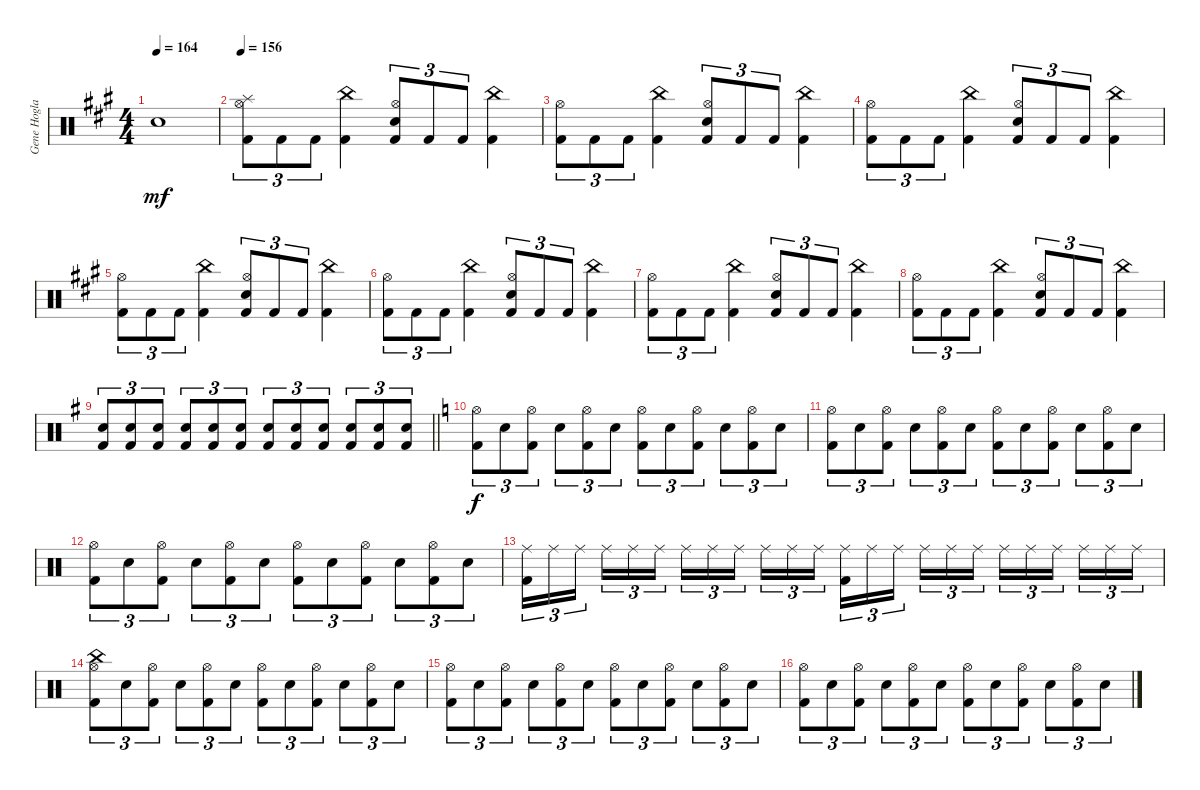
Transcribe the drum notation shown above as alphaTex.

\track ("Gene Hoglan" "Gene Hogla") {instrument percussion}
\staff {score}
\articulation defaults
\ts (4 4)
\tempo 164
\clef neutral
\ks a "Electric Snare (hit)".1{dy mf}
|
\tempo 156
("Hi-Hat (open)" "Splash (hit)" "Kick (hit) 2").8{tu (3 2)} "Kick (hit) 2".8{tu (3 2)} "Kick (hit) 2".8{tu (3 2)} ("China (hit)" "Kick (hit) 2").4 ("Hi-Hat (open)" "Electric Snare (hit)" "Kick (hit) 2").8{tu (3 2)} "Kick (hit) 2".8{tu (3 2)} "Kick (hit) 2".8{tu (3 2)} ("China (hit)" "Kick (hit) 2").4 |
("Hi-Hat (open)" "Kick (hit) 2").8{tu (3 2)} "Kick (hit) 2".8{tu (3 2)} "Kick (hit) 2".8{tu (3 2)} ("China (hit)" "Kick (hit) 2").4 ("Hi-Hat (open)" "Electric Snare (hit)" "Kick (hit) 2").8{tu (3 2)} "Kick (hit) 2".8{tu (3 2)} "Kick (hit) 2".8{tu (3 2)} ("China (hit)" "Kick (hit) 2").4 |
("Hi-Hat (open)" "Kick (hit) 2").8{tu (3 2)} "Kick (hit) 2".8{tu (3 2)} "Kick (hit) 2".8{tu (3 2)} ("China (hit)" "Kick (hit) 2").4 ("Hi-Hat (open)" "Electric Snare (hit)" "Kick (hit) 2").8{tu (3 2)} "Kick (hit) 2".8{tu (3 2)} "Kick (hit) 2".8{tu (3 2)} ("China (hit)" "Kick (hit) 2").4 |
("Hi-Hat (open)" "Kick (hit) 2").8{tu (3 2)} "Kick (hit) 2".8{tu (3 2)} "Kick (hit) 2".8{tu (3 2)} ("China (hit)" "Kick (hit) 2").4 ("Hi-Hat (open)" "Electric Snare (hit)" "Kick (hit) 2").8{tu (3 2)} "Kick (hit) 2".8{tu (3 2)} "Kick (hit) 2".8{tu (3 2)} ("China (hit)" "Kick (hit) 2").4 |
("Hi-Hat (open)" "Kick (hit) 2").8{tu (3 2)} "Kick (hit) 2".8{tu (3 2)} "Kick (hit) 2".8{tu (3 2)} ("China (hit)" "Kick (hit) 2").4 ("Hi-Hat (open)" "Electric Snare (hit)" "Kick (hit) 2").8{tu (3 2)} "Kick (hit) 2".8{tu (3 2)} "Kick (hit) 2".8{tu (3 2)} ("China (hit)" "Kick (hit) 2").4 |
("Hi-Hat (open)" "Kick (hit) 2").8{tu (3 2)} "Kick (hit) 2".8{tu (3 2)} "Kick (hit) 2".8{tu (3 2)} ("China (hit)" "Kick (hit) 2").4 ("Hi-Hat (open)" "Electric Snare (hit)" "Kick (hit) 2").8{tu (3 2)} "Kick (hit) 2".8{tu (3 2)} "Kick (hit) 2".8{tu (3 2)} ("China (hit)" "Kick (hit) 2").4 |
("Hi-Hat (open)" "Kick (hit) 2").8{tu (3 2)} "Kick (hit) 2".8{tu (3 2)} "Kick (hit) 2".8{tu (3 2)} ("China (hit)" "Kick (hit) 2").4 ("Hi-Hat (open)" "Electric Snare (hit)" "Kick (hit) 2").8{tu (3 2)} "Kick (hit) 2".8{tu (3 2)} "Kick (hit) 2".8{tu (3 2)} ("China (hit)" "Kick (hit) 2").4 |
\barLineRight lightlight
\ks g
("Electric Snare (hit)" "Kick (hit) 2").8{tu (3 2)} ("Electric Snare (hit)" "Kick (hit) 2").8{tu (3 2)} ("Electric Snare (hit)" "Kick (hit) 2").8{tu (3 2)} ("Electric Snare (hit)" "Kick (hit) 2").8{tu (3 2)} ("Electric Snare (hit)" "Kick (hit) 2").8{tu (3 2)} ("Electric Snare (hit)" "Kick (hit) 2").8{tu (3 2)} ("Electric Snare (hit)" "Kick (hit) 2").8{tu (3 2)} ("Electric Snare (hit)" "Kick (hit) 2").8{tu (3 2)} ("Electric Snare (hit)" "Kick (hit) 2").8{tu (3 2)} ("Electric Snare (hit)" "Kick (hit) 2").8{tu (3 2)} ("Electric Snare (hit)" "Kick (hit) 2").8{tu (3 2)} ("Electric Snare (hit)" "Kick (hit) 2").8{tu (3 2)} |
\ks c
("Hi-Hat (open)" "Kick (hit) 2").8{tu (3 2) dy f} "Electric Snare (hit)".8{tu (3 2)} ("Hi-Hat (open)" "Kick (hit) 2").8{tu (3 2)} "Electric Snare (hit)".8{tu (3 2)} ("Hi-Hat (open)" "Kick (hit) 2").8{tu (3 2)} "Electric Snare (hit)".8{tu (3 2)} ("Hi-Hat (open)" "Kick (hit) 2").8{tu (3 2)} "Electric Snare (hit)".8{tu (3 2)} ("Hi-Hat (open)" "Kick (hit) 2").8{tu (3 2)} "Electric Snare (hit)".8{tu (3 2)} ("Hi-Hat (open)" "Kick (hit) 2").8{tu (3 2)} "Electric Snare (hit)".8{tu (3 2)} |
("Hi-Hat (open)" "Kick (hit) 2").8{tu (3 2)} "Electric Snare (hit)".8{tu (3 2)} ("Hi-Hat (open)" "Kick (hit) 2").8{tu (3 2)} "Electric Snare (hit)".8{tu (3 2)} ("Hi-Hat (open)" "Kick (hit) 2").8{tu (3 2)} "Electric Snare (hit)".8{tu (3 2)} ("Hi-Hat (open)" "Kick (hit) 2").8{tu (3 2)} "Electric Snare (hit)".8{tu (3 2)} ("Hi-Hat (open)" "Kick (hit) 2").8{tu (3 2)} "Electric Snare (hit)".8{tu (3 2)} ("Hi-Hat (open)" "Kick (hit) 2").8{tu (3 2)} "Electric Snare (hit)".8{tu (3 2)} |
("Hi-Hat (open)" "Kick (hit) 2").8{tu (3 2)} "Electric Snare (hit)".8{tu (3 2)} ("Hi-Hat (open)" "Kick (hit) 2").8{tu (3 2)} "Electric Snare (hit)".8{tu (3 2)} ("Hi-Hat (open)" "Kick (hit) 2").8{tu (3 2)} "Electric Snare (hit)".8{tu (3 2)} ("Hi-Hat (open)" "Kick (hit) 2").8{tu (3 2)} "Electric Snare (hit)".8{tu (3 2)} ("Hi-Hat (open)" "Kick (hit) 2").8{tu (3 2)} "Electric Snare (hit)".8{tu (3 2)} ("Hi-Hat (open)" "Kick (hit) 2").8{tu (3 2)} "Electric Snare (hit)".8{tu (3 2)} |
("Ride (middle)" "Kick (hit) 2").16{tu (3 2)} "Ride (middle)".16{tu (3 2)} "Ride (middle)".16{tu (3 2) beam splitsecondary} "Ride (middle)".16{tu (3 2)} "Ride (middle)".16{tu (3 2)} "Ride (middle)".16{tu (3 2)} "Ride (middle)".16{tu (3 2)} "Ride (middle)".16{tu (3 2)} "Ride (middle)".16{tu (3 2) beam splitsecondary} "Ride (middle)".16{tu (3 2)} "Ride (middle)".16{tu (3 2)} "Ride (middle)".16{tu (3 2)} ("Ride (middle)" "Kick (hit) 2").16{tu (3 2)} "Ride (middle)".16{tu (3 2)} "Ride (middle)".16{tu (3 2) beam splitsecondary} "Ride (middle)".16{tu (3 2)} "Ride (middle)".16{tu (3 2)} "Ride (middle)".16{tu (3 2)} "Ride (middle)".16{tu (3 2)} "Ride (middle)".16{tu (3 2)} "Ride (middle)".16{tu (3 2) beam splitsecondary} "Ride (middle)".16{tu (3 2)} "Ride (middle)".16{tu (3 2)} "Ride (middle)".16{tu (3 2)} |
("Hi-Hat (open)" "China (hit)" "Kick (hit) 2").8{tu (3 2)} "Electric Snare (hit)".8{tu (3 2)} ("Hi-Hat (open)" "Kick (hit) 2").8{tu (3 2)} "Electric Snare (hit)".8{tu (3 2)} ("Hi-Hat (open)" "Kick (hit) 2").8{tu (3 2)} "Electric Snare (hit)".8{tu (3 2)} ("Hi-Hat (open)" "Kick (hit) 2").8{tu (3 2)} "Electric Snare (hit)".8{tu (3 2)} ("Hi-Hat (open)" "Kick (hit) 2").8{tu (3 2)} "Electric Snare (hit)".8{tu (3 2)} ("Hi-Hat (open)" "Kick (hit) 2").8{tu (3 2)} "Electric Snare (hit)".8{tu (3 2)} |
("Hi-Hat (open)" "Kick (hit) 2").8{tu (3 2)} "Electric Snare (hit)".8{tu (3 2)} ("Hi-Hat (open)" "Kick (hit) 2").8{tu (3 2)} "Electric Snare (hit)".8{tu (3 2)} ("Hi-Hat (open)" "Kick (hit) 2").8{tu (3 2)} "Electric Snare (hit)".8{tu (3 2)} ("Hi-Hat (open)" "Kick (hit) 2").8{tu (3 2)} "Electric Snare (hit)".8{tu (3 2)} ("Hi-Hat (open)" "Kick (hit) 2").8{tu (3 2)} "Electric Snare (hit)".8{tu (3 2)} ("Hi-Hat (open)" "Kick (hit) 2").8{tu (3 2)} "Electric Snare (hit)".8{tu (3 2)} |
("Hi-Hat (open)" "Kick (hit) 2").8{tu (3 2)} "Electric Snare (hit)".8{tu (3 2)} ("Hi-Hat (open)" "Kick (hit) 2").8{tu (3 2)} "Electric Snare (hit)".8{tu (3 2)} ("Hi-Hat (open)" "Kick (hit) 2").8{tu (3 2)} "Electric Snare (hit)".8{tu (3 2)} ("Hi-Hat (open)" "Kick (hit) 2").8{tu (3 2)} "Electric Snare (hit)".8{tu (3 2)} ("Hi-Hat (open)" "Kick (hit) 2").8{tu (3 2)} "Electric Snare (hit)".8{tu (3 2)} ("Hi-Hat (open)" "Kick (hit) 2").8{tu (3 2)} "Electric Snare (hit)".8{tu (3 2)}
